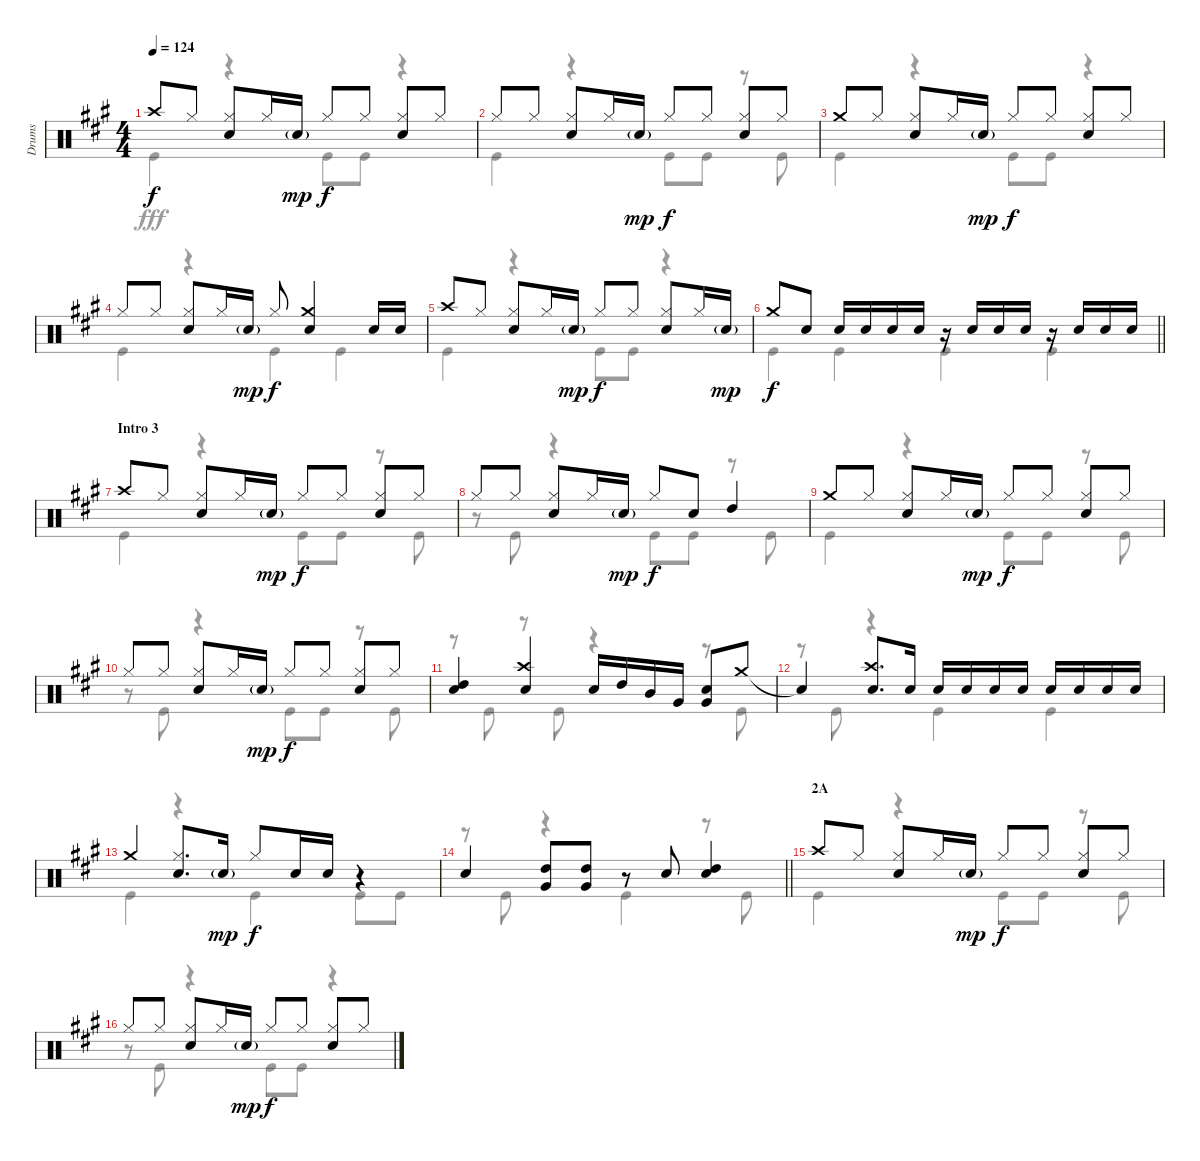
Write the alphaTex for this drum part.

\track ("Drums" "Drums") {instrument percussion}
\staff {score}
\articulation defaults
\voice
\ts (4 4)
\tempo 124
\clef neutral
\ks a "Crash high (hit)".8{dy f} "Hi-Hat (closed)".8
("Hi-Hat (closed)" "Snare (hit) 2").8 "Hi-Hat (closed)".16 "Snare (hit) 2"{g}.16{dy mp} "Hi-Hat (closed)".8{dy f} "Hi-Hat (closed)".8 ("Hi-Hat (closed)" "Snare (hit) 2").8 "Hi-Hat (closed)".8 |
"Hi-Hat (closed)".8 "Hi-Hat (closed)".8 ("Hi-Hat (closed)" "Snare (hit) 2").8 "Hi-Hat (closed)".16 "Snare (hit) 2"{g}.16{dy mp} "Hi-Hat (closed)".8{dy f} "Hi-Hat (closed)".8 ("Hi-Hat (closed)" "Snare (hit) 2").8 "Hi-Hat (closed)".8 |
"Crash medium (hit)".8 "Hi-Hat (closed)".8 ("Hi-Hat (closed)" "Snare (hit) 2").8 "Hi-Hat (closed)".16 "Snare (hit) 2"{g}.16{dy mp} "Hi-Hat (closed)".8{dy f} "Hi-Hat (closed)".8 ("Hi-Hat (closed)" "Snare (hit) 2").8 "Hi-Hat (closed)".8 |
"Hi-Hat (closed)".8 "Hi-Hat (closed)".8 ("Hi-Hat (closed)" "Snare (hit) 2").8 "Hi-Hat (closed)".16 "Snare (hit) 2"{g}.16{dy mp} "Hi-Hat (closed)".8{dy f} ("Crash medium (hit)" "Snare (hit) 2").4 "Snare (hit) 2".16 "Snare (hit) 2".16 |
"Crash high (hit)".8 "Hi-Hat (closed)".8 ("Hi-Hat (closed)" "Snare (hit) 2").8 "Hi-Hat (closed)".16 "Snare (hit) 2"{g}.16{dy mp} "Hi-Hat (closed)".8{dy f} "Hi-Hat (closed)".8 ("Hi-Hat (closed)" "Snare (hit) 2").8 "Hi-Hat (closed)".16 "Snare (hit) 2"{g}.16{dy mp} |
\barLineRight lightlight "Crash medium (hit)".8{dy f} "Snare (hit) 2".8 "Snare (hit) 2".16 "Snare (hit) 2".16 "Snare (hit) 2".16 "Snare (hit) 2".16
r.16 "Snare (hit) 2".16 "Snare (hit) 2".16 "Snare (hit) 2".16 r.16 "Snare (hit) 2".16 "Snare (hit) 2".16 "Snare (hit) 2".16 |
\section ("" "Intro 3")
"Crash high (hit)".8 "Hi-Hat (closed)".8 ("Hi-Hat (closed)" "Snare (hit) 2").8 "Hi-Hat (closed)".16 "Snare (hit) 2"{g}.16{dy mp} "Hi-Hat (closed)".8{dy f} "Hi-Hat (closed)".8 ("Hi-Hat (closed)" "Snare (hit) 2").8 "Hi-Hat (closed)".8 |
"Hi-Hat (closed)".8 "Hi-Hat (closed)".8 ("Hi-Hat (closed)" "Snare (hit) 2").8 "Hi-Hat (closed)".16 "Snare (hit) 2"{g}.16{dy mp} "Hi-Hat (closed)".8{dy f} "Snare (hit) 2".8 "High Tom (hit)".4 |
"Crash medium (hit)".8 "Hi-Hat (closed)".8 ("Hi-Hat (closed)" "Snare (hit) 2").8 "Hi-Hat (closed)".16 "Snare (hit) 2"{g}.16{dy mp} "Hi-Hat (closed)".8{dy f} "Hi-Hat (closed)".8 ("Hi-Hat (closed)" "Snare (hit) 2").8 "Hi-Hat (closed)".8 |
"Hi-Hat (closed)".8 "Hi-Hat (closed)".8 ("Hi-Hat (closed)" "Snare (hit) 2").8 "Hi-Hat (closed)".16 "Snare (hit) 2"{g}.16{dy mp} "Hi-Hat (closed)".8{dy f} "Hi-Hat (closed)".8 ("Hi-Hat (closed)" "Snare (hit) 2").8 "Hi-Hat (closed)".8 |
("High Tom (hit)" "Snare (hit) 2").4 ("Crash high (hit)" "Snare (hit) 2").4 "Snare (hit) 2".16 "High Tom (hit)".16 "Mid Tom (hit)".16 "Very Low Tom (hit)".16 ("Very Low Tom (hit)" "Snare (hit) 2").8 "Crash medium (hit)".8 |
"Snare (hit)"{t}.4 ("Crash high (hit)" "Snare (hit) 2").8{d} "Snare (hit) 2".16 "Snare (hit) 2".16 "Snare (hit) 2".16 "Snare (hit) 2".16 "Snare (hit) 2".16 "Snare (hit) 2".16 "Snare (hit) 2".16 "Snare (hit) 2".16 "Snare (hit) 2".16 |
"Crash medium (hit)".4 ("Hi-Hat (closed)" "Snare (hit) 2").8{d} "Snare (hit) 2"{g}.16{dy mp} "Hi-Hat (closed)".8{dy f} "Snare (hit) 2".16 "Snare (hit) 2".16 r.4 |
\barLineRight lightlight "Snare (hit) 2".4
("High Tom (hit)" "Very Low Tom (hit)").8 ("High Tom (hit)" "Very Low Tom (hit)").8 r.8 "Snare (hit) 2".8 ("High Tom (hit)" "Snare (hit) 2").4 |
\section ("" "2A")
"Crash high (hit)".8 "Hi-Hat (closed)".8 ("Hi-Hat (closed)" "Snare (hit) 2").8 "Hi-Hat (closed)".16 "Snare (hit) 2"{g}.16{dy mp} "Hi-Hat (closed)".8{dy f} "Hi-Hat (closed)".8 ("Hi-Hat (closed)" "Snare (hit) 2").8 "Hi-Hat (closed)".8 |
"Hi-Hat (closed)".8 "Hi-Hat (closed)".8 ("Hi-Hat (closed)" "Snare (hit) 2").8 "Hi-Hat (closed)".16 "Snare (hit) 2"{g}.16{dy mp} "Hi-Hat (closed)".8{dy f} "Hi-Hat (closed)".8 ("Hi-Hat (closed)" "Snare (hit) 2").8 "Hi-Hat (closed)".8
\voice
\clef neutral
\ottava regular
\simile none
\ks a "Kick (hit)".4{dy fff}
r.4 "Kick (hit)".8 "Kick (hit)".8 r.4 |
"Kick (hit)".4 r.4 "Kick (hit)".8 "Kick (hit)".8 r.8 "Kick (hit)".8 |
"Kick (hit)".4 r.4 "Kick (hit)".8 "Kick (hit)".8 r.4 |
"Kick (hit)".4 r.4 "Kick (hit)".4 "Kick (hit)".4 |
"Kick (hit)".4 r.4 "Kick (hit)".8 "Kick (hit)".8 r.4 |
\barLineRight lightlight "Kick (hit)".4 "Kick (hit)".4 "Kick (hit)".4 "Kick (hit)".4
|
"Kick (hit)".4 r.4 "Kick (hit)".8 "Kick (hit)".8 r.8 "Kick (hit)".8 |
r.8 "Kick (hit)".8 r.4 "Kick (hit)".8 "Kick (hit)".8 r.8 "Kick (hit)".8 |
"Kick (hit)".4 r.4 "Kick (hit)".8 "Kick (hit)".8 r.8 "Kick (hit)".8 |
r.8 "Kick (hit)".8 r.4 "Kick (hit)".8 "Kick (hit)".8 r.8 "Kick (hit)".8 |
r.8 "Kick (hit)".8 r.8 "Kick (hit)".8 r.4 r.8 "Kick (hit)".8 |
r.8 "Kick (hit)".8 r.4 "Kick (hit)".4 "Kick (hit)".4 |
"Kick (hit)".4 r.4 "Kick (hit)".4 "Kick (hit)".8 "Kick (hit)".8 |
\barLineRight lightlight
r.8 "Kick (hit)".8 r.4 "Kick (hit)".4 r.8 "Kick (hit)".8 |
"Kick (hit)".4 r.4 "Kick (hit)".8 "Kick (hit)".8 r.8 "Kick (hit)".8 |
r.8 "Kick (hit)".8 r.4 "Kick (hit)".8 "Kick (hit)".8 r.4
